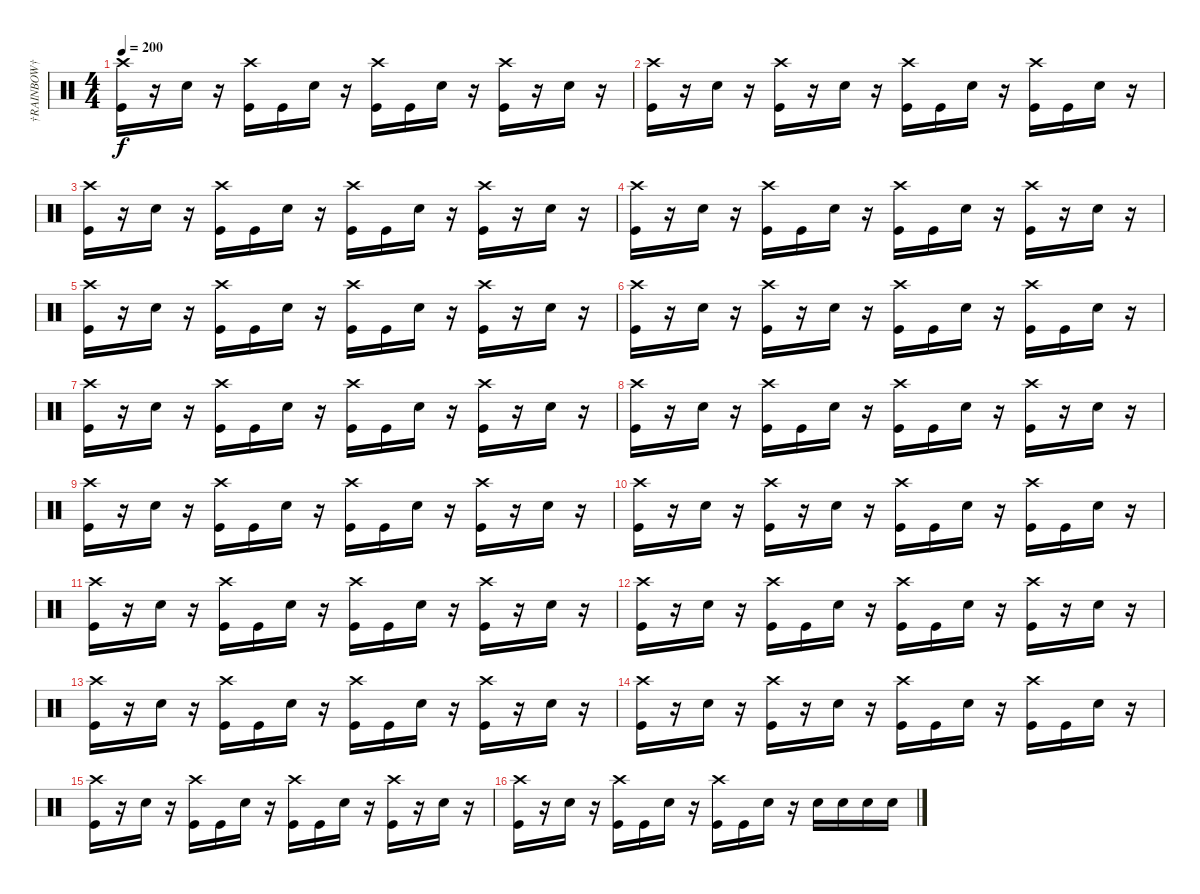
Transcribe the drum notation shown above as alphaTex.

\track ("†RAINBOW†" "†RAINBOW†") {instrument percussion}
\staff {score}
\articulation defaults
\ts (4 4)
\tempo 200
\clef neutral
\ks c
("Crash high (hit)" "Kick (hit)").16{dy f} r.16 "Electric Snare (hit)".16 r.16 ("Crash high (hit)" "Kick (hit)").16 "Kick (hit)".16 "Electric Snare (hit)".16 r.16 ("Crash high (hit)" "Kick (hit)").16 "Kick (hit)".16 "Electric Snare (hit)".16 r.16 ("Crash high (hit)" "Kick (hit)").16 r.16 "Electric Snare (hit)".16 r.16 |
("Crash high (hit)" "Kick (hit)").16 r.16 "Electric Snare (hit)".16 r.16 ("Crash high (hit)" "Kick (hit)").16 r.16 "Electric Snare (hit)".16 r.16 ("Crash high (hit)" "Kick (hit)").16 "Kick (hit)".16 "Electric Snare (hit)".16 r.16 ("Crash high (hit)" "Kick (hit)").16 "Kick (hit)".16 "Electric Snare (hit)".16 r.16 |
("Crash high (hit)" "Kick (hit)").16 r.16 "Electric Snare (hit)".16 r.16 ("Crash high (hit)" "Kick (hit)").16 "Kick (hit)".16 "Electric Snare (hit)".16 r.16 ("Crash high (hit)" "Kick (hit)").16 "Kick (hit)".16 "Electric Snare (hit)".16 r.16 ("Crash high (hit)" "Kick (hit)").16 r.16 "Electric Snare (hit)".16 r.16 |
("Crash high (hit)" "Kick (hit)").16 r.16 "Electric Snare (hit)".16 r.16 ("Crash high (hit)" "Kick (hit)").16 "Kick (hit)".16 "Electric Snare (hit)".16 r.16 ("Crash high (hit)" "Kick (hit)").16 "Kick (hit)".16 "Electric Snare (hit)".16 r.16 ("Crash high (hit)" "Kick (hit)").16 r.16 "Electric Snare (hit)".16 r.16 |
("Crash high (hit)" "Kick (hit)").16 r.16 "Electric Snare (hit)".16 r.16 ("Crash high (hit)" "Kick (hit)").16 "Kick (hit)".16 "Electric Snare (hit)".16 r.16 ("Crash high (hit)" "Kick (hit)").16 "Kick (hit)".16 "Electric Snare (hit)".16 r.16 ("Crash high (hit)" "Kick (hit)").16 r.16 "Electric Snare (hit)".16 r.16 |
("Crash high (hit)" "Kick (hit)").16 r.16 "Electric Snare (hit)".16 r.16 ("Crash high (hit)" "Kick (hit)").16 r.16 "Electric Snare (hit)".16 r.16 ("Crash high (hit)" "Kick (hit)").16 "Kick (hit)".16 "Electric Snare (hit)".16 r.16 ("Crash high (hit)" "Kick (hit)").16 "Kick (hit)".16 "Electric Snare (hit)".16 r.16 |
("Crash high (hit)" "Kick (hit)").16 r.16 "Electric Snare (hit)".16 r.16 ("Crash high (hit)" "Kick (hit)").16 "Kick (hit)".16 "Electric Snare (hit)".16 r.16 ("Crash high (hit)" "Kick (hit)").16 "Kick (hit)".16 "Electric Snare (hit)".16 r.16 ("Crash high (hit)" "Kick (hit)").16 r.16 "Electric Snare (hit)".16 r.16 |
("Crash high (hit)" "Kick (hit)").16 r.16 "Electric Snare (hit)".16 r.16 ("Crash high (hit)" "Kick (hit)").16 "Kick (hit)".16 "Electric Snare (hit)".16 r.16 ("Crash high (hit)" "Kick (hit)").16 "Kick (hit)".16 "Electric Snare (hit)".16 r.16 ("Crash high (hit)" "Kick (hit)").16 r.16 "Electric Snare (hit)".16 r.16 |
("Crash high (hit)" "Kick (hit)").16 r.16 "Electric Snare (hit)".16 r.16 ("Crash high (hit)" "Kick (hit)").16 "Kick (hit)".16 "Electric Snare (hit)".16 r.16 ("Crash high (hit)" "Kick (hit)").16 "Kick (hit)".16 "Electric Snare (hit)".16 r.16 ("Crash high (hit)" "Kick (hit)").16 r.16 "Electric Snare (hit)".16 r.16 |
("Crash high (hit)" "Kick (hit)").16 r.16 "Electric Snare (hit)".16 r.16 ("Crash high (hit)" "Kick (hit)").16 r.16 "Electric Snare (hit)".16 r.16 ("Crash high (hit)" "Kick (hit)").16 "Kick (hit)".16 "Electric Snare (hit)".16 r.16 ("Crash high (hit)" "Kick (hit)").16 "Kick (hit)".16 "Electric Snare (hit)".16 r.16 |
("Crash high (hit)" "Kick (hit)").16 r.16 "Electric Snare (hit)".16 r.16 ("Crash high (hit)" "Kick (hit)").16 "Kick (hit)".16 "Electric Snare (hit)".16 r.16 ("Crash high (hit)" "Kick (hit)").16 "Kick (hit)".16 "Electric Snare (hit)".16 r.16 ("Crash high (hit)" "Kick (hit)").16 r.16 "Electric Snare (hit)".16 r.16 |
("Crash high (hit)" "Kick (hit)").16 r.16 "Electric Snare (hit)".16 r.16 ("Crash high (hit)" "Kick (hit)").16 "Kick (hit)".16 "Electric Snare (hit)".16 r.16 ("Crash high (hit)" "Kick (hit)").16 "Kick (hit)".16 "Electric Snare (hit)".16 r.16 ("Crash high (hit)" "Kick (hit)").16 r.16 "Electric Snare (hit)".16 r.16 |
("Crash high (hit)" "Kick (hit)").16 r.16 "Electric Snare (hit)".16 r.16 ("Crash high (hit)" "Kick (hit)").16 "Kick (hit)".16 "Electric Snare (hit)".16 r.16 ("Crash high (hit)" "Kick (hit)").16 "Kick (hit)".16 "Electric Snare (hit)".16 r.16 ("Crash high (hit)" "Kick (hit)").16 r.16 "Electric Snare (hit)".16 r.16 |
("Crash high (hit)" "Kick (hit)").16 r.16 "Electric Snare (hit)".16 r.16 ("Crash high (hit)" "Kick (hit)").16 r.16 "Electric Snare (hit)".16 r.16 ("Crash high (hit)" "Kick (hit)").16 "Kick (hit)".16 "Electric Snare (hit)".16 r.16 ("Crash high (hit)" "Kick (hit)").16 "Kick (hit)".16 "Electric Snare (hit)".16 r.16 |
("Crash high (hit)" "Kick (hit)").16 r.16 "Electric Snare (hit)".16 r.16 ("Crash high (hit)" "Kick (hit)").16 "Kick (hit)".16 "Electric Snare (hit)".16 r.16 ("Crash high (hit)" "Kick (hit)").16 "Kick (hit)".16 "Electric Snare (hit)".16 r.16 ("Crash high (hit)" "Kick (hit)").16 r.16 "Electric Snare (hit)".16 r.16 |
("Crash high (hit)" "Kick (hit)").16 r.16 "Electric Snare (hit)".16 r.16 ("Crash high (hit)" "Kick (hit)").16 "Kick (hit)".16 "Electric Snare (hit)".16 r.16 ("Crash high (hit)" "Kick (hit)").16 "Kick (hit)".16 "Electric Snare (hit)".16 r.16 "Electric Snare (hit)".16 "Electric Snare (hit)".16 "Electric Snare (hit)".16 "Electric Snare (hit)".16
